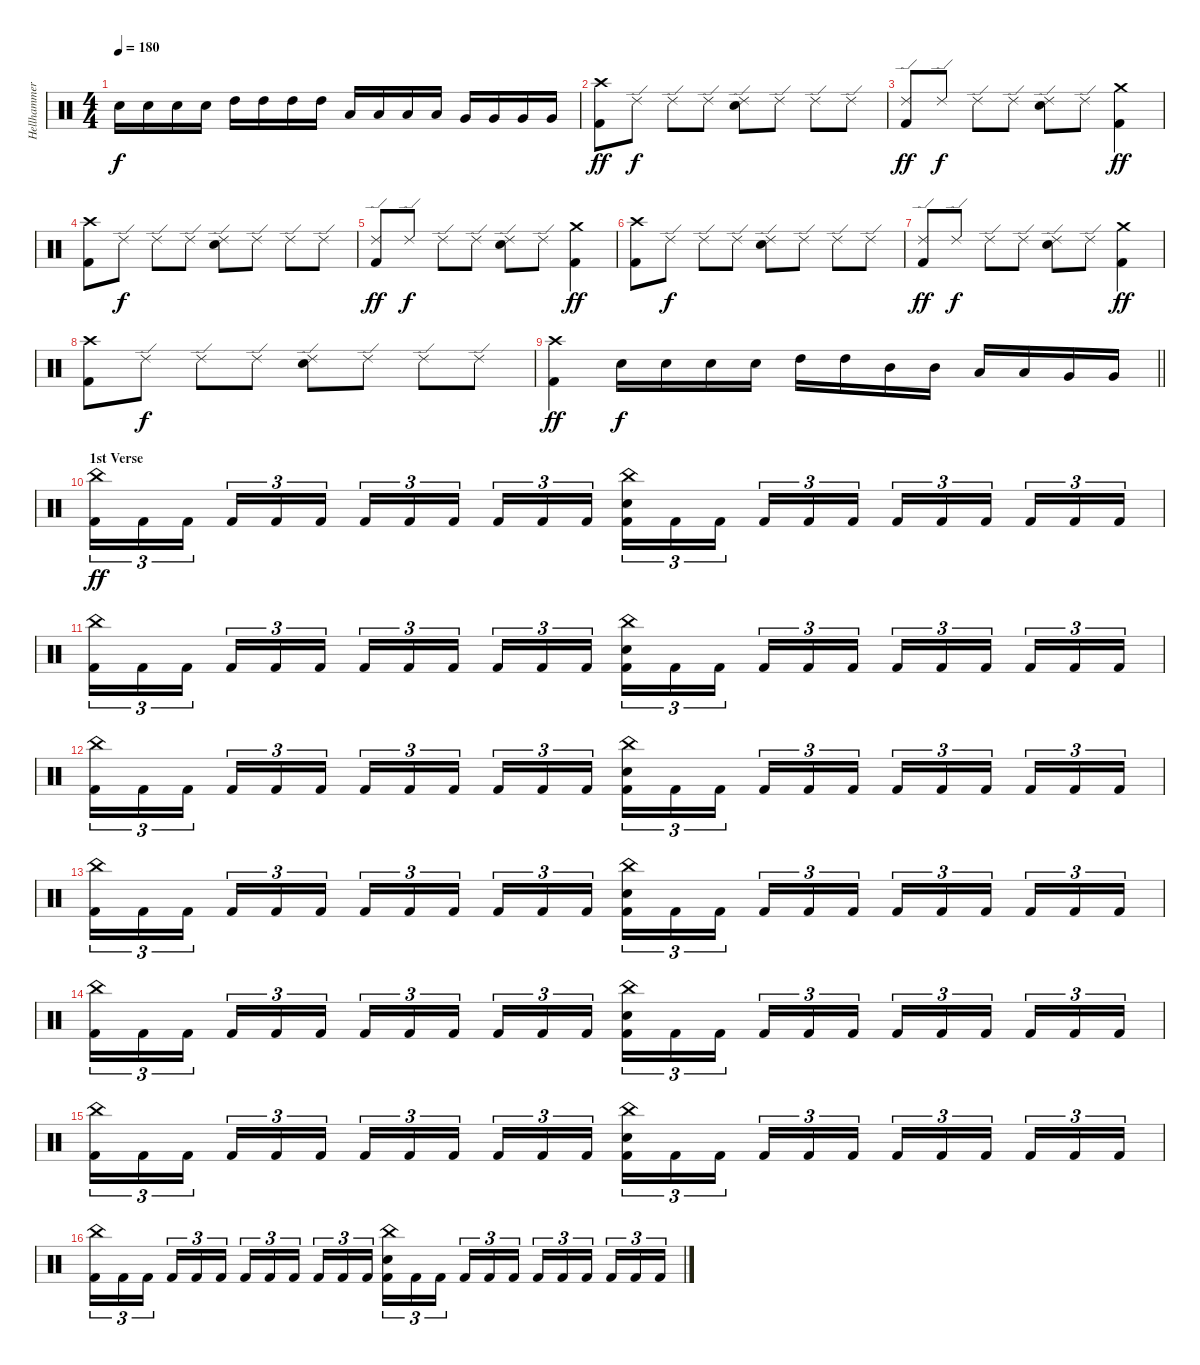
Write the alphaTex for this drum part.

\track ("Hellhammer" "Hellhammer") {instrument percussion}
\staff {score}
\articulation defaults
\ts (4 4)
\tempo 180
\clef neutral
\ks c "Electric Snare (hit)".16{dy f} "Electric Snare (hit)".16 "Electric Snare (hit)".16 "Electric Snare (hit)".16 "High Tom (hit)".16 "High Tom (hit)".16 "High Tom (hit)".16 "High Tom (hit)".16 "Low Tom (hit)".16 "Low Tom (hit)".16 "Low Tom (hit)".16 "Low Tom (hit)".16 "Very Low Tom (hit)".16 "Very Low Tom (hit)".16 "Very Low Tom (hit)".16 "Very Low Tom (hit)".16
|
("Crash high (hit)" "Kick (hit) 2").8{dy ff} "Ride (edge) 2".8{dy f} "Ride (edge) 2".8 "Ride (edge) 2".8 ("Ride (edge) 2" "Electric Snare (hit)").8 "Ride (edge) 2".8 "Ride (edge) 2".8 "Ride (edge) 2".8 |
("Ride (edge) 2" "Kick (hit) 2").8{dy ff} "Ride (edge) 2".8{dy f} "Ride (edge) 2".8 "Ride (edge) 2".8 ("Ride (edge) 2" "Electric Snare (hit)").8 "Ride (edge) 2".8 ("Crash medium (hit)" "Kick (hit) 2").4{dy ff} |
("Crash high (hit)" "Kick (hit) 2").8 "Ride (edge) 2".8{dy f} "Ride (edge) 2".8 "Ride (edge) 2".8 ("Ride (edge) 2" "Electric Snare (hit)").8 "Ride (edge) 2".8 "Ride (edge) 2".8 "Ride (edge) 2".8 |
("Ride (edge) 2" "Kick (hit) 2").8{dy ff} "Ride (edge) 2".8{dy f} "Ride (edge) 2".8 "Ride (edge) 2".8 ("Ride (edge) 2" "Electric Snare (hit)").8 "Ride (edge) 2".8 ("Crash medium (hit)" "Kick (hit) 2").4{dy ff} |
("Crash high (hit)" "Kick (hit) 2").8 "Ride (edge) 2".8{dy f} "Ride (edge) 2".8 "Ride (edge) 2".8 ("Ride (edge) 2" "Electric Snare (hit)").8 "Ride (edge) 2".8 "Ride (edge) 2".8 "Ride (edge) 2".8 |
("Ride (edge) 2" "Kick (hit) 2").8{dy ff} "Ride (edge) 2".8{dy f} "Ride (edge) 2".8 "Ride (edge) 2".8 ("Ride (edge) 2" "Electric Snare (hit)").8 "Ride (edge) 2".8 ("Crash medium (hit)" "Kick (hit) 2").4{dy ff} |
("Crash high (hit)" "Kick (hit) 2").8 "Ride (edge) 2".8{dy f} "Ride (edge) 2".8 "Ride (edge) 2".8 ("Ride (edge) 2" "Electric Snare (hit)").8 "Ride (edge) 2".8 "Ride (edge) 2".8 "Ride (edge) 2".8 |
\barLineRight lightlight
("Crash high (hit)" "Kick (hit) 2").4{dy ff} "Electric Snare (hit)".16{dy f} "Electric Snare (hit)".16 "Electric Snare (hit)".16 "Electric Snare (hit)".16 "High Tom (hit)".16 "High Tom (hit)".16 "Mid Tom (hit)".16 "Mid Tom (hit)".16 "Low Tom (hit)".16 "Low Tom (hit)".16 "Very Low Tom (hit)".16 "Very Low Tom (hit)".16 |
\section ("" "1st Verse")
("China (hit)" "Kick (hit) 2").16{tu (3 2) dy ff} "Kick (hit) 2".16{tu (3 2)} "Kick (hit) 2".16{tu (3 2) beam splitsecondary} "Kick (hit) 2".16{tu (3 2)} "Kick (hit) 2".16{tu (3 2)} "Kick (hit) 2".16{tu (3 2)} "Kick (hit) 2".16{tu (3 2)} "Kick (hit) 2".16{tu (3 2)} "Kick (hit) 2".16{tu (3 2) beam splitsecondary} "Kick (hit) 2".16{tu (3 2)} "Kick (hit) 2".16{tu (3 2)} "Kick (hit) 2".16{tu (3 2)} ("China (hit)" "Electric Snare (hit)" "Kick (hit) 2").16{tu (3 2)} "Kick (hit) 2".16{tu (3 2)} "Kick (hit) 2".16{tu (3 2) beam splitsecondary} "Kick (hit) 2".16{tu (3 2)} "Kick (hit) 2".16{tu (3 2)} "Kick (hit) 2".16{tu (3 2)} "Kick (hit) 2".16{tu (3 2)} "Kick (hit) 2".16{tu (3 2)} "Kick (hit) 2".16{tu (3 2) beam splitsecondary} "Kick (hit) 2".16{tu (3 2)} "Kick (hit) 2".16{tu (3 2)} "Kick (hit) 2".16{tu (3 2)} |
("China (hit)" "Kick (hit) 2").16{tu (3 2)} "Kick (hit) 2".16{tu (3 2)} "Kick (hit) 2".16{tu (3 2) beam splitsecondary} "Kick (hit) 2".16{tu (3 2)} "Kick (hit) 2".16{tu (3 2)} "Kick (hit) 2".16{tu (3 2)} "Kick (hit) 2".16{tu (3 2)} "Kick (hit) 2".16{tu (3 2)} "Kick (hit) 2".16{tu (3 2) beam splitsecondary} "Kick (hit) 2".16{tu (3 2)} "Kick (hit) 2".16{tu (3 2)} "Kick (hit) 2".16{tu (3 2)} ("China (hit)" "Electric Snare (hit)" "Kick (hit) 2").16{tu (3 2)} "Kick (hit) 2".16{tu (3 2)} "Kick (hit) 2".16{tu (3 2) beam splitsecondary} "Kick (hit) 2".16{tu (3 2)} "Kick (hit) 2".16{tu (3 2)} "Kick (hit) 2".16{tu (3 2)} "Kick (hit) 2".16{tu (3 2)} "Kick (hit) 2".16{tu (3 2)} "Kick (hit) 2".16{tu (3 2) beam splitsecondary} "Kick (hit) 2".16{tu (3 2)} "Kick (hit) 2".16{tu (3 2)} "Kick (hit) 2".16{tu (3 2)} |
("China (hit)" "Kick (hit) 2").16{tu (3 2)} "Kick (hit) 2".16{tu (3 2)} "Kick (hit) 2".16{tu (3 2) beam splitsecondary} "Kick (hit) 2".16{tu (3 2)} "Kick (hit) 2".16{tu (3 2)} "Kick (hit) 2".16{tu (3 2)} "Kick (hit) 2".16{tu (3 2)} "Kick (hit) 2".16{tu (3 2)} "Kick (hit) 2".16{tu (3 2) beam splitsecondary} "Kick (hit) 2".16{tu (3 2)} "Kick (hit) 2".16{tu (3 2)} "Kick (hit) 2".16{tu (3 2)} ("China (hit)" "Electric Snare (hit)" "Kick (hit) 2").16{tu (3 2)} "Kick (hit) 2".16{tu (3 2)} "Kick (hit) 2".16{tu (3 2) beam splitsecondary} "Kick (hit) 2".16{tu (3 2)} "Kick (hit) 2".16{tu (3 2)} "Kick (hit) 2".16{tu (3 2)} "Kick (hit) 2".16{tu (3 2)} "Kick (hit) 2".16{tu (3 2)} "Kick (hit) 2".16{tu (3 2) beam splitsecondary} "Kick (hit) 2".16{tu (3 2)} "Kick (hit) 2".16{tu (3 2)} "Kick (hit) 2".16{tu (3 2)} |
("China (hit)" "Kick (hit) 2").16{tu (3 2)} "Kick (hit) 2".16{tu (3 2)} "Kick (hit) 2".16{tu (3 2) beam splitsecondary} "Kick (hit) 2".16{tu (3 2)} "Kick (hit) 2".16{tu (3 2)} "Kick (hit) 2".16{tu (3 2)} "Kick (hit) 2".16{tu (3 2)} "Kick (hit) 2".16{tu (3 2)} "Kick (hit) 2".16{tu (3 2) beam splitsecondary} "Kick (hit) 2".16{tu (3 2)} "Kick (hit) 2".16{tu (3 2)} "Kick (hit) 2".16{tu (3 2)} ("China (hit)" "Electric Snare (hit)" "Kick (hit) 2").16{tu (3 2)} "Kick (hit) 2".16{tu (3 2)} "Kick (hit) 2".16{tu (3 2) beam splitsecondary} "Kick (hit) 2".16{tu (3 2)} "Kick (hit) 2".16{tu (3 2)} "Kick (hit) 2".16{tu (3 2)} "Kick (hit) 2".16{tu (3 2)} "Kick (hit) 2".16{tu (3 2)} "Kick (hit) 2".16{tu (3 2) beam splitsecondary} "Kick (hit) 2".16{tu (3 2)} "Kick (hit) 2".16{tu (3 2)} "Kick (hit) 2".16{tu (3 2)} |
("China (hit)" "Kick (hit) 2").16{tu (3 2)} "Kick (hit) 2".16{tu (3 2)} "Kick (hit) 2".16{tu (3 2) beam splitsecondary} "Kick (hit) 2".16{tu (3 2)} "Kick (hit) 2".16{tu (3 2)} "Kick (hit) 2".16{tu (3 2)} "Kick (hit) 2".16{tu (3 2)} "Kick (hit) 2".16{tu (3 2)} "Kick (hit) 2".16{tu (3 2) beam splitsecondary} "Kick (hit) 2".16{tu (3 2)} "Kick (hit) 2".16{tu (3 2)} "Kick (hit) 2".16{tu (3 2)} ("China (hit)" "Electric Snare (hit)" "Kick (hit) 2").16{tu (3 2)} "Kick (hit) 2".16{tu (3 2)} "Kick (hit) 2".16{tu (3 2) beam splitsecondary} "Kick (hit) 2".16{tu (3 2)} "Kick (hit) 2".16{tu (3 2)} "Kick (hit) 2".16{tu (3 2)} "Kick (hit) 2".16{tu (3 2)} "Kick (hit) 2".16{tu (3 2)} "Kick (hit) 2".16{tu (3 2) beam splitsecondary} "Kick (hit) 2".16{tu (3 2)} "Kick (hit) 2".16{tu (3 2)} "Kick (hit) 2".16{tu (3 2)} |
("China (hit)" "Kick (hit) 2").16{tu (3 2)} "Kick (hit) 2".16{tu (3 2)} "Kick (hit) 2".16{tu (3 2) beam splitsecondary} "Kick (hit) 2".16{tu (3 2)} "Kick (hit) 2".16{tu (3 2)} "Kick (hit) 2".16{tu (3 2)} "Kick (hit) 2".16{tu (3 2)} "Kick (hit) 2".16{tu (3 2)} "Kick (hit) 2".16{tu (3 2) beam splitsecondary} "Kick (hit) 2".16{tu (3 2)} "Kick (hit) 2".16{tu (3 2)} "Kick (hit) 2".16{tu (3 2)} ("China (hit)" "Electric Snare (hit)" "Kick (hit) 2").16{tu (3 2)} "Kick (hit) 2".16{tu (3 2)} "Kick (hit) 2".16{tu (3 2) beam splitsecondary} "Kick (hit) 2".16{tu (3 2)} "Kick (hit) 2".16{tu (3 2)} "Kick (hit) 2".16{tu (3 2)} "Kick (hit) 2".16{tu (3 2)} "Kick (hit) 2".16{tu (3 2)} "Kick (hit) 2".16{tu (3 2) beam splitsecondary} "Kick (hit) 2".16{tu (3 2)} "Kick (hit) 2".16{tu (3 2)} "Kick (hit) 2".16{tu (3 2)} |
("China (hit)" "Kick (hit) 2").16{tu (3 2)} "Kick (hit) 2".16{tu (3 2)} "Kick (hit) 2".16{tu (3 2) beam splitsecondary} "Kick (hit) 2".16{tu (3 2)} "Kick (hit) 2".16{tu (3 2)} "Kick (hit) 2".16{tu (3 2)} "Kick (hit) 2".16{tu (3 2)} "Kick (hit) 2".16{tu (3 2)} "Kick (hit) 2".16{tu (3 2) beam splitsecondary} "Kick (hit) 2".16{tu (3 2)} "Kick (hit) 2".16{tu (3 2)} "Kick (hit) 2".16{tu (3 2)} ("China (hit)" "Electric Snare (hit)" "Kick (hit) 2").16{tu (3 2)} "Kick (hit) 2".16{tu (3 2)} "Kick (hit) 2".16{tu (3 2) beam splitsecondary} "Kick (hit) 2".16{tu (3 2)} "Kick (hit) 2".16{tu (3 2)} "Kick (hit) 2".16{tu (3 2)} "Kick (hit) 2".16{tu (3 2)} "Kick (hit) 2".16{tu (3 2)} "Kick (hit) 2".16{tu (3 2) beam splitsecondary} "Kick (hit) 2".16{tu (3 2)} "Kick (hit) 2".16{tu (3 2)} "Kick (hit) 2".16{tu (3 2)}
